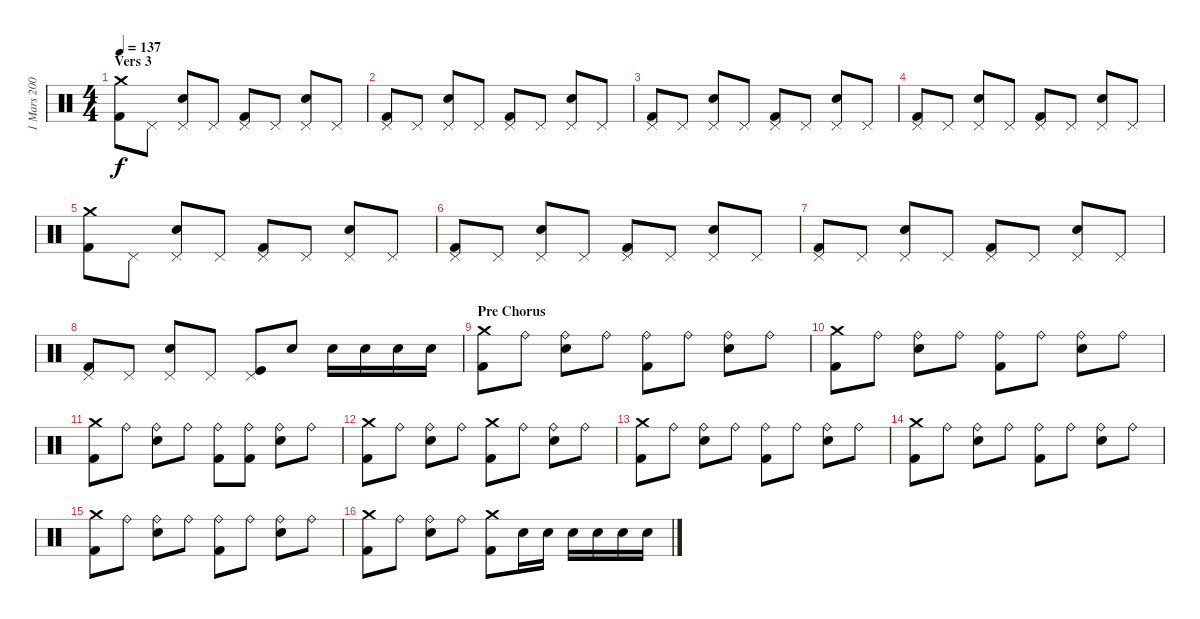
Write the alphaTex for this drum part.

\track ("1 Mars 2004" "1 Mars 200") {instrument percussion}
\staff {score}
\articulation defaults
\ts (4 4)
\section ("" "Vers 3")
\tempo 137
\clef neutral
\ks c
("Crash medium (hit)" "Kick (hit) 2").8{dy f} "Pedal Hi-Hat (hit)".8 ("Pedal Hi-Hat (hit)" "Electric Snare (hit)").8 "Pedal Hi-Hat (hit)".8 ("Pedal Hi-Hat (hit)" "Kick (hit) 2").8 "Pedal Hi-Hat (hit)".8 ("Pedal Hi-Hat (hit)" "Electric Snare (hit)").8 "Pedal Hi-Hat (hit)".8 |
("Pedal Hi-Hat (hit)" "Kick (hit) 2").8 "Pedal Hi-Hat (hit)".8 ("Pedal Hi-Hat (hit)" "Electric Snare (hit)").8 "Pedal Hi-Hat (hit)".8 ("Pedal Hi-Hat (hit)" "Kick (hit) 2").8 "Pedal Hi-Hat (hit)".8 ("Pedal Hi-Hat (hit)" "Electric Snare (hit)").8 "Pedal Hi-Hat (hit)".8 |
("Pedal Hi-Hat (hit)" "Kick (hit) 2").8 "Pedal Hi-Hat (hit)".8 ("Pedal Hi-Hat (hit)" "Electric Snare (hit)").8 "Pedal Hi-Hat (hit)".8 ("Pedal Hi-Hat (hit)" "Kick (hit) 2").8 "Pedal Hi-Hat (hit)".8 ("Pedal Hi-Hat (hit)" "Electric Snare (hit)").8 "Pedal Hi-Hat (hit)".8 |
("Pedal Hi-Hat (hit)" "Kick (hit) 2").8 "Pedal Hi-Hat (hit)".8 ("Pedal Hi-Hat (hit)" "Electric Snare (hit)").8 "Pedal Hi-Hat (hit)".8 ("Pedal Hi-Hat (hit)" "Kick (hit) 2").8 "Pedal Hi-Hat (hit)".8 ("Pedal Hi-Hat (hit)" "Electric Snare (hit)").8 "Pedal Hi-Hat (hit)".8 |
("Crash medium (hit)" "Kick (hit) 2").8 "Pedal Hi-Hat (hit)".8 ("Pedal Hi-Hat (hit)" "Electric Snare (hit)").8 "Pedal Hi-Hat (hit)".8 ("Pedal Hi-Hat (hit)" "Kick (hit) 2").8 "Pedal Hi-Hat (hit)".8 ("Pedal Hi-Hat (hit)" "Electric Snare (hit)").8 "Pedal Hi-Hat (hit)".8 |
("Pedal Hi-Hat (hit)" "Kick (hit) 2").8 "Pedal Hi-Hat (hit)".8 ("Pedal Hi-Hat (hit)" "Electric Snare (hit)").8 "Pedal Hi-Hat (hit)".8 ("Pedal Hi-Hat (hit)" "Kick (hit) 2").8 "Pedal Hi-Hat (hit)".8 ("Pedal Hi-Hat (hit)" "Electric Snare (hit)").8 "Pedal Hi-Hat (hit)".8 |
("Pedal Hi-Hat (hit)" "Kick (hit) 2").8 "Pedal Hi-Hat (hit)".8 ("Pedal Hi-Hat (hit)" "Electric Snare (hit)").8 "Pedal Hi-Hat (hit)".8 ("Pedal Hi-Hat (hit)" "Kick (hit) 2").8 "Pedal Hi-Hat (hit)".8 ("Pedal Hi-Hat (hit)" "Electric Snare (hit)").8 "Pedal Hi-Hat (hit)".8 |
("Pedal Hi-Hat (hit)" "Kick (hit) 2").8 "Pedal Hi-Hat (hit)".8 ("Pedal Hi-Hat (hit)" "Electric Snare (hit)").8 "Pedal Hi-Hat (hit)".8 ("Pedal Hi-Hat (hit)" "Kick (hit)").8 "Electric Snare (hit)".8 "Electric Snare (hit)".16 "Electric Snare (hit)".16 "Electric Snare (hit)".16 "Electric Snare (hit)".16 |
\section ("" "Pre Chorus")
("Crash medium (hit)" "Kick (hit) 2").8 "Ride (bell)".8 ("Ride (bell)" "Electric Snare (hit)").8 "Ride (bell)".8 ("Ride (bell)" "Kick (hit) 2").8 "Ride (bell)".8 ("Ride (bell)" "Electric Snare (hit)").8 "Ride (bell)".8 |
("Crash medium (hit)" "Kick (hit) 2").8 "Ride (bell)".8 ("Ride (bell)" "Electric Snare (hit)").8 "Ride (bell)".8 ("Ride (bell)" "Kick (hit) 2").8 "Ride (bell)".8 ("Ride (bell)" "Electric Snare (hit)").8 "Ride (bell)".8 |
("Crash medium (hit)" "Kick (hit) 2").8 "Ride (bell)".8 ("Ride (bell)" "Electric Snare (hit)").8 "Ride (bell)".8 ("Ride (bell)" "Kick (hit) 2").8 ("Ride (bell)" "Kick (hit) 2").8 ("Ride (bell)" "Electric Snare (hit)").8 "Ride (bell)".8 |
("Crash medium (hit)" "Kick (hit) 2").8 "Ride (bell)".8 ("Ride (bell)" "Electric Snare (hit)").8 "Ride (bell)".8 ("Crash medium (hit)" "Kick (hit) 2").8 "Ride (bell)".8 ("Ride (bell)" "Electric Snare (hit)").8 "Ride (bell)".8 |
("Crash medium (hit)" "Kick (hit) 2").8 "Ride (bell)".8 ("Ride (bell)" "Electric Snare (hit)").8 "Ride (bell)".8 ("Ride (bell)" "Kick (hit) 2").8 "Ride (bell)".8 ("Ride (bell)" "Electric Snare (hit)").8 "Ride (bell)".8 |
("Crash medium (hit)" "Kick (hit) 2").8 "Ride (bell)".8 ("Ride (bell)" "Electric Snare (hit)").8 "Ride (bell)".8 ("Ride (bell)" "Kick (hit) 2").8 "Ride (bell)".8 ("Ride (bell)" "Electric Snare (hit)").8 "Ride (bell)".8 |
("Crash medium (hit)" "Kick (hit) 2").8 "Ride (bell)".8 ("Ride (bell)" "Electric Snare (hit)").8 "Ride (bell)".8 ("Ride (bell)" "Kick (hit) 2").8 "Ride (bell)".8 ("Ride (bell)" "Electric Snare (hit)").8 "Ride (bell)".8 |
("Crash medium (hit)" "Kick (hit) 2").8 "Ride (bell)".8 ("Ride (bell)" "Electric Snare (hit)").8 "Ride (bell)".8 ("Crash medium (hit)" "Kick (hit) 2").8 "Electric Snare (hit)".16 "Electric Snare (hit)".16 "Electric Snare (hit)".16 "Electric Snare (hit)".16 "Electric Snare (hit)".16 "Electric Snare (hit)".16
